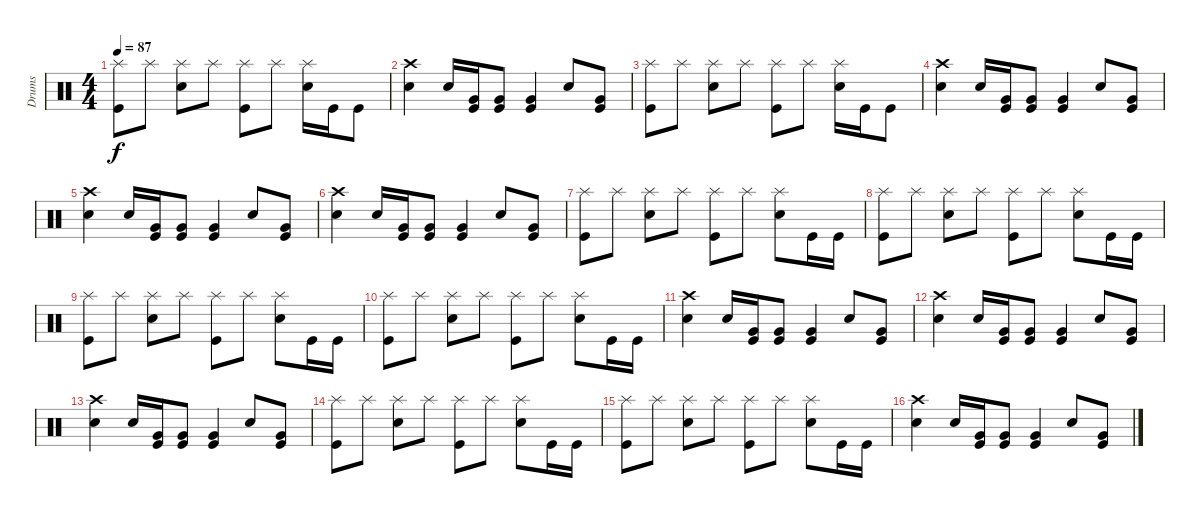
\track ("Drums" "Drums") {instrument percussion}
\staff {score}
\articulation defaults
\ts (4 4)
\tempo 87
\clef neutral
\ks c
("Splash (hit)" "Kick (hit)").8{dy f} "Splash (hit)".8 ("Splash (hit)" "Electric Snare (hit)").8 "Splash (hit)".8 ("Splash (hit)" "Kick (hit)").8 "Splash (hit)".8 ("Splash (hit)" "Electric Snare (hit)").16 "Kick (hit)".16 "Kick (hit)".8 |
("Crash high (hit)" "Electric Snare (hit)").4 "Electric Snare (hit)".16 ("Kick (hit)" "Very Low Tom (hit)").16 ("Kick (hit)" "Very Low Tom (hit)").8 ("Kick (hit)" "Very Low Tom (hit)").4 "Electric Snare (hit)".8 ("Kick (hit)" "Very Low Tom (hit)").8 |
("Splash (hit)" "Kick (hit)").8 "Splash (hit)".8 ("Splash (hit)" "Electric Snare (hit)").8 "Splash (hit)".8 ("Splash (hit)" "Kick (hit)").8 "Splash (hit)".8 ("Splash (hit)" "Electric Snare (hit)").16 "Kick (hit)".16 "Kick (hit)".8 |
("Crash high (hit)" "Electric Snare (hit)").4 "Electric Snare (hit)".16 ("Kick (hit)" "Very Low Tom (hit)").16 ("Kick (hit)" "Very Low Tom (hit)").8 ("Kick (hit)" "Very Low Tom (hit)").4 "Electric Snare (hit)".8 ("Kick (hit)" "Very Low Tom (hit)").8 |
("Crash high (hit)" "Electric Snare (hit)").4 "Electric Snare (hit)".16 ("Kick (hit)" "Very Low Tom (hit)").16 ("Kick (hit)" "Very Low Tom (hit)").8 ("Kick (hit)" "Very Low Tom (hit)").4 "Electric Snare (hit)".8 ("Kick (hit)" "Very Low Tom (hit)").8 |
("Crash high (hit)" "Electric Snare (hit)").4 "Electric Snare (hit)".16 ("Kick (hit)" "Very Low Tom (hit)").16 ("Kick (hit)" "Very Low Tom (hit)").8 ("Kick (hit)" "Very Low Tom (hit)").4 "Electric Snare (hit)".8 ("Kick (hit)" "Very Low Tom (hit)").8 |
("Splash (hit)" "Kick (hit)").8 "Splash (hit)".8 ("Splash (hit)" "Electric Snare (hit)").8 "Splash (hit)".8 ("Splash (hit)" "Kick (hit)").8 "Splash (hit)".8 ("Splash (hit)" "Electric Snare (hit)").8 "Kick (hit)".16 "Kick (hit)".16 |
("Splash (hit)" "Kick (hit)").8 "Splash (hit)".8 ("Splash (hit)" "Electric Snare (hit)").8 "Splash (hit)".8 ("Splash (hit)" "Kick (hit)").8 "Splash (hit)".8 ("Splash (hit)" "Electric Snare (hit)").8 "Kick (hit)".16 "Kick (hit)".16 |
("Splash (hit)" "Kick (hit)").8 "Splash (hit)".8 ("Splash (hit)" "Electric Snare (hit)").8 "Splash (hit)".8 ("Splash (hit)" "Kick (hit)").8 "Splash (hit)".8 ("Splash (hit)" "Electric Snare (hit)").8 "Kick (hit)".16 "Kick (hit)".16 |
("Splash (hit)" "Kick (hit)").8 "Splash (hit)".8 ("Splash (hit)" "Electric Snare (hit)").8 "Splash (hit)".8 ("Splash (hit)" "Kick (hit)").8 "Splash (hit)".8 ("Splash (hit)" "Electric Snare (hit)").8 "Kick (hit)".16 "Kick (hit)".16 |
("Crash high (hit)" "Electric Snare (hit)").4 "Electric Snare (hit)".16 ("Kick (hit)" "Very Low Tom (hit)").16 ("Kick (hit)" "Very Low Tom (hit)").8 ("Kick (hit)" "Very Low Tom (hit)").4 "Electric Snare (hit)".8 ("Kick (hit)" "Very Low Tom (hit)").8 |
("Crash high (hit)" "Electric Snare (hit)").4 "Electric Snare (hit)".16 ("Kick (hit)" "Very Low Tom (hit)").16 ("Kick (hit)" "Very Low Tom (hit)").8 ("Kick (hit)" "Very Low Tom (hit)").4 "Electric Snare (hit)".8 ("Kick (hit)" "Very Low Tom (hit)").8 |
("Crash high (hit)" "Electric Snare (hit)").4 "Electric Snare (hit)".16 ("Kick (hit)" "Very Low Tom (hit)").16 ("Kick (hit)" "Very Low Tom (hit)").8 ("Kick (hit)" "Very Low Tom (hit)").4 "Electric Snare (hit)".8 ("Kick (hit)" "Very Low Tom (hit)").8 |
("Splash (hit)" "Kick (hit)").8 "Splash (hit)".8 ("Splash (hit)" "Electric Snare (hit)").8 "Splash (hit)".8 ("Splash (hit)" "Kick (hit)").8 "Splash (hit)".8 ("Splash (hit)" "Electric Snare (hit)").8 "Kick (hit)".16 "Kick (hit)".16 |
("Splash (hit)" "Kick (hit)").8 "Splash (hit)".8 ("Splash (hit)" "Electric Snare (hit)").8 "Splash (hit)".8 ("Splash (hit)" "Kick (hit)").8 "Splash (hit)".8 ("Splash (hit)" "Electric Snare (hit)").8 "Kick (hit)".16 "Kick (hit)".16 |
("Crash high (hit)" "Electric Snare (hit)").4 "Electric Snare (hit)".16 ("Kick (hit)" "Very Low Tom (hit)").16 ("Kick (hit)" "Very Low Tom (hit)").8 ("Kick (hit)" "Very Low Tom (hit)").4 "Electric Snare (hit)".8 ("Kick (hit)" "Very Low Tom (hit)").8
